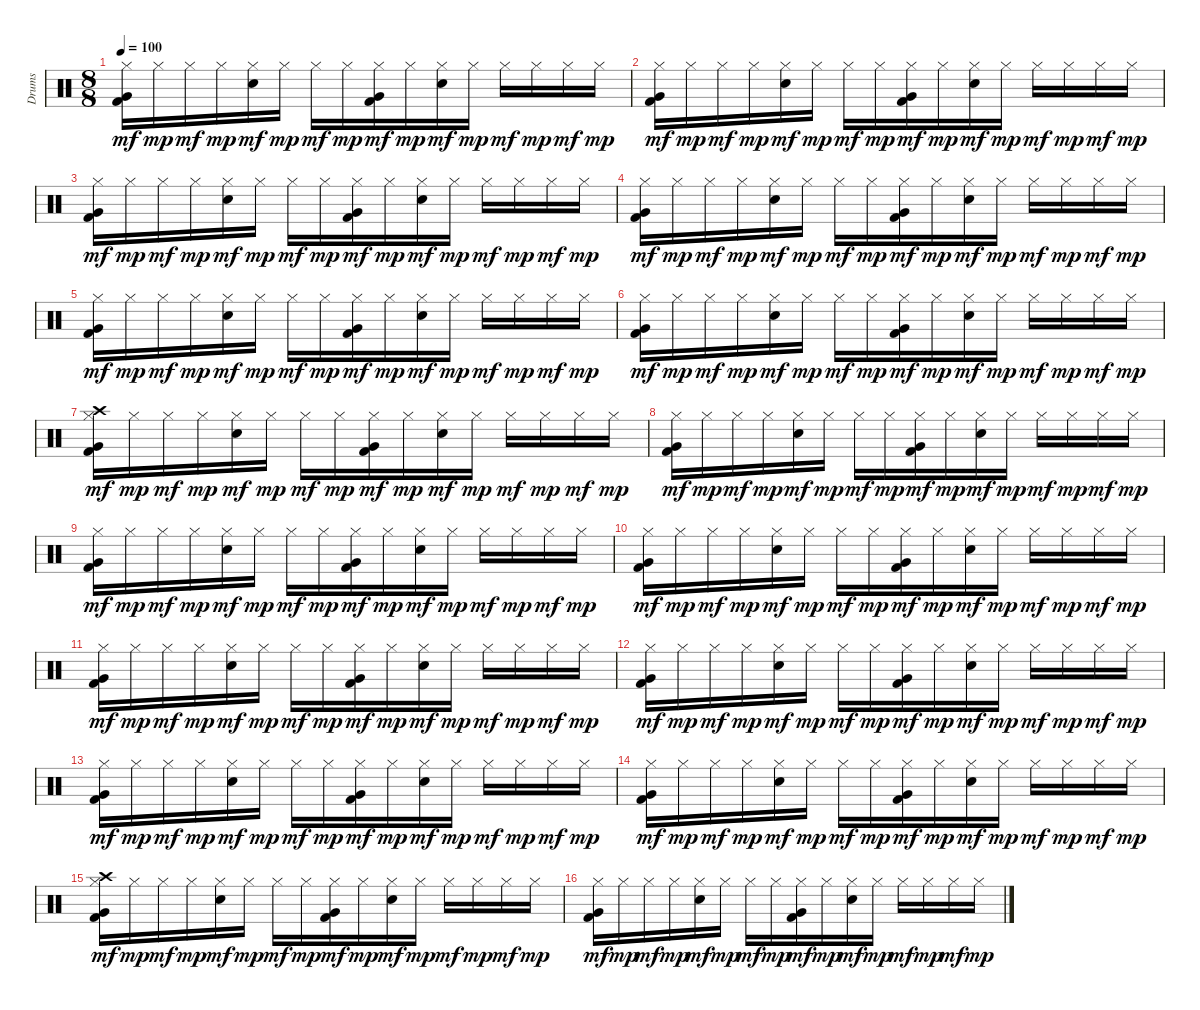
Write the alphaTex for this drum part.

\track ("Drums" "Drums") {instrument percussion}
\staff {score}
\articulation defaults
\ts (8 8)
\tempo 100
\clef neutral
\ks c
("Kick (hit) 2" "Very Low Tom (hit)" "Hi-Hat (closed)").16{dy mf} "Hi-Hat (closed)".16{dy mp} "Hi-Hat (closed)".16{dy mf} "Hi-Hat (closed)".16{dy mp} ("Electric Snare (hit)" "Hi-Hat (closed)").16{dy mf} "Hi-Hat (closed)".16{dy mp} "Hi-Hat (closed)".16{dy mf} "Hi-Hat (closed)".16{dy mp} ("Kick (hit) 2" "Very Low Tom (hit)" "Hi-Hat (closed)").16{dy mf} "Hi-Hat (closed)".16{dy mp} ("Electric Snare (hit)" "Hi-Hat (closed)").16{dy mf} "Hi-Hat (closed)".16{dy mp} "Hi-Hat (closed)".16{dy mf} "Hi-Hat (closed)".16{dy mp} "Hi-Hat (closed)".16{dy mf} "Hi-Hat (closed)".16{dy mp} |
("Kick (hit) 2" "Very Low Tom (hit)" "Hi-Hat (closed)").16{dy mf} "Hi-Hat (closed)".16{dy mp} "Hi-Hat (closed)".16{dy mf} "Hi-Hat (closed)".16{dy mp} ("Electric Snare (hit)" "Hi-Hat (closed)").16{dy mf} "Hi-Hat (closed)".16{dy mp} "Hi-Hat (closed)".16{dy mf} "Hi-Hat (closed)".16{dy mp} ("Kick (hit) 2" "Very Low Tom (hit)" "Hi-Hat (closed)").16{dy mf} "Hi-Hat (closed)".16{dy mp} ("Electric Snare (hit)" "Hi-Hat (closed)").16{dy mf} "Hi-Hat (closed)".16{dy mp} "Hi-Hat (closed)".16{dy mf} "Hi-Hat (closed)".16{dy mp} "Hi-Hat (closed)".16{dy mf} "Hi-Hat (closed)".16{dy mp} |
("Kick (hit) 2" "Very Low Tom (hit)" "Hi-Hat (closed)").16{dy mf} "Hi-Hat (closed)".16{dy mp} "Hi-Hat (closed)".16{dy mf} "Hi-Hat (closed)".16{dy mp} ("Electric Snare (hit)" "Hi-Hat (closed)").16{dy mf} "Hi-Hat (closed)".16{dy mp} "Hi-Hat (closed)".16{dy mf} "Hi-Hat (closed)".16{dy mp} ("Kick (hit) 2" "Very Low Tom (hit)" "Hi-Hat (closed)").16{dy mf} "Hi-Hat (closed)".16{dy mp} ("Electric Snare (hit)" "Hi-Hat (closed)").16{dy mf} "Hi-Hat (closed)".16{dy mp} "Hi-Hat (closed)".16{dy mf} "Hi-Hat (closed)".16{dy mp} "Hi-Hat (closed)".16{dy mf} "Hi-Hat (closed)".16{dy mp} |
("Kick (hit) 2" "Very Low Tom (hit)" "Hi-Hat (closed)").16{dy mf} "Hi-Hat (closed)".16{dy mp} "Hi-Hat (closed)".16{dy mf} "Hi-Hat (closed)".16{dy mp} ("Electric Snare (hit)" "Hi-Hat (closed)").16{dy mf} "Hi-Hat (closed)".16{dy mp} "Hi-Hat (closed)".16{dy mf} "Hi-Hat (closed)".16{dy mp} ("Kick (hit) 2" "Very Low Tom (hit)" "Hi-Hat (closed)").16{dy mf} "Hi-Hat (closed)".16{dy mp} ("Electric Snare (hit)" "Hi-Hat (closed)").16{dy mf} "Hi-Hat (closed)".16{dy mp} "Hi-Hat (closed)".16{dy mf} "Hi-Hat (closed)".16{dy mp} "Hi-Hat (closed)".16{dy mf} "Hi-Hat (closed)".16{dy mp} |
("Kick (hit) 2" "Very Low Tom (hit)" "Hi-Hat (closed)").16{dy mf} "Hi-Hat (closed)".16{dy mp} "Hi-Hat (closed)".16{dy mf} "Hi-Hat (closed)".16{dy mp} ("Electric Snare (hit)" "Hi-Hat (closed)").16{dy mf} "Hi-Hat (closed)".16{dy mp} "Hi-Hat (closed)".16{dy mf} "Hi-Hat (closed)".16{dy mp} ("Kick (hit) 2" "Very Low Tom (hit)" "Hi-Hat (closed)").16{dy mf} "Hi-Hat (closed)".16{dy mp} ("Electric Snare (hit)" "Hi-Hat (closed)").16{dy mf} "Hi-Hat (closed)".16{dy mp} "Hi-Hat (closed)".16{dy mf} "Hi-Hat (closed)".16{dy mp} "Hi-Hat (closed)".16{dy mf} "Hi-Hat (closed)".16{dy mp} |
("Kick (hit) 2" "Very Low Tom (hit)" "Hi-Hat (closed)").16{dy mf} "Hi-Hat (closed)".16{dy mp} "Hi-Hat (closed)".16{dy mf} "Hi-Hat (closed)".16{dy mp} ("Electric Snare (hit)" "Hi-Hat (closed)").16{dy mf} "Hi-Hat (closed)".16{dy mp} "Hi-Hat (closed)".16{dy mf} "Hi-Hat (closed)".16{dy mp} ("Kick (hit) 2" "Very Low Tom (hit)" "Hi-Hat (closed)").16{dy mf} "Hi-Hat (closed)".16{dy mp} ("Electric Snare (hit)" "Hi-Hat (closed)").16{dy mf} "Hi-Hat (closed)".16{dy mp} "Hi-Hat (closed)".16{dy mf} "Hi-Hat (closed)".16{dy mp} "Hi-Hat (closed)".16{dy mf} "Hi-Hat (closed)".16{dy mp} |
("Crash high (hit)" "Kick (hit) 2" "Very Low Tom (hit)" "Hi-Hat (closed)").16{dy mf} "Hi-Hat (closed)".16{dy mp} "Hi-Hat (closed)".16{dy mf} "Hi-Hat (closed)".16{dy mp} ("Electric Snare (hit)" "Hi-Hat (closed)").16{dy mf} "Hi-Hat (closed)".16{dy mp} "Hi-Hat (closed)".16{dy mf} "Hi-Hat (closed)".16{dy mp} ("Kick (hit) 2" "Very Low Tom (hit)" "Hi-Hat (closed)").16{dy mf} "Hi-Hat (closed)".16{dy mp} ("Electric Snare (hit)" "Hi-Hat (closed)").16{dy mf} "Hi-Hat (closed)".16{dy mp} "Hi-Hat (closed)".16{dy mf} "Hi-Hat (closed)".16{dy mp} "Hi-Hat (closed)".16{dy mf} "Hi-Hat (closed)".16{dy mp} |
("Kick (hit) 2" "Very Low Tom (hit)" "Hi-Hat (closed)").16{dy mf} "Hi-Hat (closed)".16{dy mp} "Hi-Hat (closed)".16{dy mf} "Hi-Hat (closed)".16{dy mp} ("Electric Snare (hit)" "Hi-Hat (closed)").16{dy mf} "Hi-Hat (closed)".16{dy mp} "Hi-Hat (closed)".16{dy mf} "Hi-Hat (closed)".16{dy mp} ("Kick (hit) 2" "Very Low Tom (hit)" "Hi-Hat (closed)").16{dy mf} "Hi-Hat (closed)".16{dy mp} ("Electric Snare (hit)" "Hi-Hat (closed)").16{dy mf} "Hi-Hat (closed)".16{dy mp} "Hi-Hat (closed)".16{dy mf} "Hi-Hat (closed)".16{dy mp} "Hi-Hat (closed)".16{dy mf} "Hi-Hat (closed)".16{dy mp} |
("Kick (hit) 2" "Very Low Tom (hit)" "Hi-Hat (closed)").16{dy mf} "Hi-Hat (closed)".16{dy mp} "Hi-Hat (closed)".16{dy mf} "Hi-Hat (closed)".16{dy mp} ("Electric Snare (hit)" "Hi-Hat (closed)").16{dy mf} "Hi-Hat (closed)".16{dy mp} "Hi-Hat (closed)".16{dy mf} "Hi-Hat (closed)".16{dy mp} ("Kick (hit) 2" "Very Low Tom (hit)" "Hi-Hat (closed)").16{dy mf} "Hi-Hat (closed)".16{dy mp} ("Electric Snare (hit)" "Hi-Hat (closed)").16{dy mf} "Hi-Hat (closed)".16{dy mp} "Hi-Hat (closed)".16{dy mf} "Hi-Hat (closed)".16{dy mp} "Hi-Hat (closed)".16{dy mf} "Hi-Hat (closed)".16{dy mp} |
("Kick (hit) 2" "Very Low Tom (hit)" "Hi-Hat (closed)").16{dy mf} "Hi-Hat (closed)".16{dy mp} "Hi-Hat (closed)".16{dy mf} "Hi-Hat (closed)".16{dy mp} ("Electric Snare (hit)" "Hi-Hat (closed)").16{dy mf} "Hi-Hat (closed)".16{dy mp} "Hi-Hat (closed)".16{dy mf} "Hi-Hat (closed)".16{dy mp} ("Kick (hit) 2" "Very Low Tom (hit)" "Hi-Hat (closed)").16{dy mf} "Hi-Hat (closed)".16{dy mp} ("Electric Snare (hit)" "Hi-Hat (closed)").16{dy mf} "Hi-Hat (closed)".16{dy mp} "Hi-Hat (closed)".16{dy mf} "Hi-Hat (closed)".16{dy mp} "Hi-Hat (closed)".16{dy mf} "Hi-Hat (closed)".16{dy mp} |
("Kick (hit) 2" "Very Low Tom (hit)" "Hi-Hat (closed)").16{dy mf} "Hi-Hat (closed)".16{dy mp} "Hi-Hat (closed)".16{dy mf} "Hi-Hat (closed)".16{dy mp} ("Electric Snare (hit)" "Hi-Hat (closed)").16{dy mf} "Hi-Hat (closed)".16{dy mp} "Hi-Hat (closed)".16{dy mf} "Hi-Hat (closed)".16{dy mp} ("Kick (hit) 2" "Very Low Tom (hit)" "Hi-Hat (closed)").16{dy mf} "Hi-Hat (closed)".16{dy mp} ("Electric Snare (hit)" "Hi-Hat (closed)").16{dy mf} "Hi-Hat (closed)".16{dy mp} "Hi-Hat (closed)".16{dy mf} "Hi-Hat (closed)".16{dy mp} "Hi-Hat (closed)".16{dy mf} "Hi-Hat (closed)".16{dy mp} |
("Kick (hit) 2" "Very Low Tom (hit)" "Hi-Hat (closed)").16{dy mf} "Hi-Hat (closed)".16{dy mp} "Hi-Hat (closed)".16{dy mf} "Hi-Hat (closed)".16{dy mp} ("Electric Snare (hit)" "Hi-Hat (closed)").16{dy mf} "Hi-Hat (closed)".16{dy mp} "Hi-Hat (closed)".16{dy mf} "Hi-Hat (closed)".16{dy mp} ("Kick (hit) 2" "Very Low Tom (hit)" "Hi-Hat (closed)").16{dy mf} "Hi-Hat (closed)".16{dy mp} ("Electric Snare (hit)" "Hi-Hat (closed)").16{dy mf} "Hi-Hat (closed)".16{dy mp} "Hi-Hat (closed)".16{dy mf} "Hi-Hat (closed)".16{dy mp} "Hi-Hat (closed)".16{dy mf} "Hi-Hat (closed)".16{dy mp} |
("Kick (hit) 2" "Very Low Tom (hit)" "Hi-Hat (closed)").16{dy mf} "Hi-Hat (closed)".16{dy mp} "Hi-Hat (closed)".16{dy mf} "Hi-Hat (closed)".16{dy mp} ("Electric Snare (hit)" "Hi-Hat (closed)").16{dy mf} "Hi-Hat (closed)".16{dy mp} "Hi-Hat (closed)".16{dy mf} "Hi-Hat (closed)".16{dy mp} ("Kick (hit) 2" "Very Low Tom (hit)" "Hi-Hat (closed)").16{dy mf} "Hi-Hat (closed)".16{dy mp} ("Electric Snare (hit)" "Hi-Hat (closed)").16{dy mf} "Hi-Hat (closed)".16{dy mp} "Hi-Hat (closed)".16{dy mf} "Hi-Hat (closed)".16{dy mp} "Hi-Hat (closed)".16{dy mf} "Hi-Hat (closed)".16{dy mp} |
("Kick (hit) 2" "Very Low Tom (hit)" "Hi-Hat (closed)").16{dy mf} "Hi-Hat (closed)".16{dy mp} "Hi-Hat (closed)".16{dy mf} "Hi-Hat (closed)".16{dy mp} ("Electric Snare (hit)" "Hi-Hat (closed)").16{dy mf} "Hi-Hat (closed)".16{dy mp} "Hi-Hat (closed)".16{dy mf} "Hi-Hat (closed)".16{dy mp} ("Kick (hit) 2" "Very Low Tom (hit)" "Hi-Hat (closed)").16{dy mf} "Hi-Hat (closed)".16{dy mp} ("Electric Snare (hit)" "Hi-Hat (closed)").16{dy mf} "Hi-Hat (closed)".16{dy mp} "Hi-Hat (closed)".16{dy mf} "Hi-Hat (closed)".16{dy mp} "Hi-Hat (closed)".16{dy mf} "Hi-Hat (closed)".16{dy mp} |
("Crash high (hit)" "Kick (hit) 2" "Very Low Tom (hit)" "Hi-Hat (closed)").16{dy mf} "Hi-Hat (closed)".16{dy mp} "Hi-Hat (closed)".16{dy mf} "Hi-Hat (closed)".16{dy mp} ("Electric Snare (hit)" "Hi-Hat (closed)").16{dy mf} "Hi-Hat (closed)".16{dy mp} "Hi-Hat (closed)".16{dy mf} "Hi-Hat (closed)".16{dy mp} ("Kick (hit) 2" "Very Low Tom (hit)" "Hi-Hat (closed)").16{dy mf} "Hi-Hat (closed)".16{dy mp} ("Electric Snare (hit)" "Hi-Hat (closed)").16{dy mf} "Hi-Hat (closed)".16{dy mp} "Hi-Hat (closed)".16{dy mf} "Hi-Hat (closed)".16{dy mp} "Hi-Hat (closed)".16{dy mf} "Hi-Hat (closed)".16{dy mp} |
("Kick (hit) 2" "Very Low Tom (hit)" "Hi-Hat (closed)").16{dy mf} "Hi-Hat (closed)".16{dy mp} "Hi-Hat (closed)".16{dy mf} "Hi-Hat (closed)".16{dy mp} ("Electric Snare (hit)" "Hi-Hat (closed)").16{dy mf} "Hi-Hat (closed)".16{dy mp} "Hi-Hat (closed)".16{dy mf} "Hi-Hat (closed)".16{dy mp} ("Kick (hit) 2" "Very Low Tom (hit)" "Hi-Hat (closed)").16{dy mf} "Hi-Hat (closed)".16{dy mp} ("Electric Snare (hit)" "Hi-Hat (closed)").16{dy mf} "Hi-Hat (closed)".16{dy mp} "Hi-Hat (closed)".16{dy mf} "Hi-Hat (closed)".16{dy mp} "Hi-Hat (closed)".16{dy mf} "Hi-Hat (closed)".16{dy mp}
